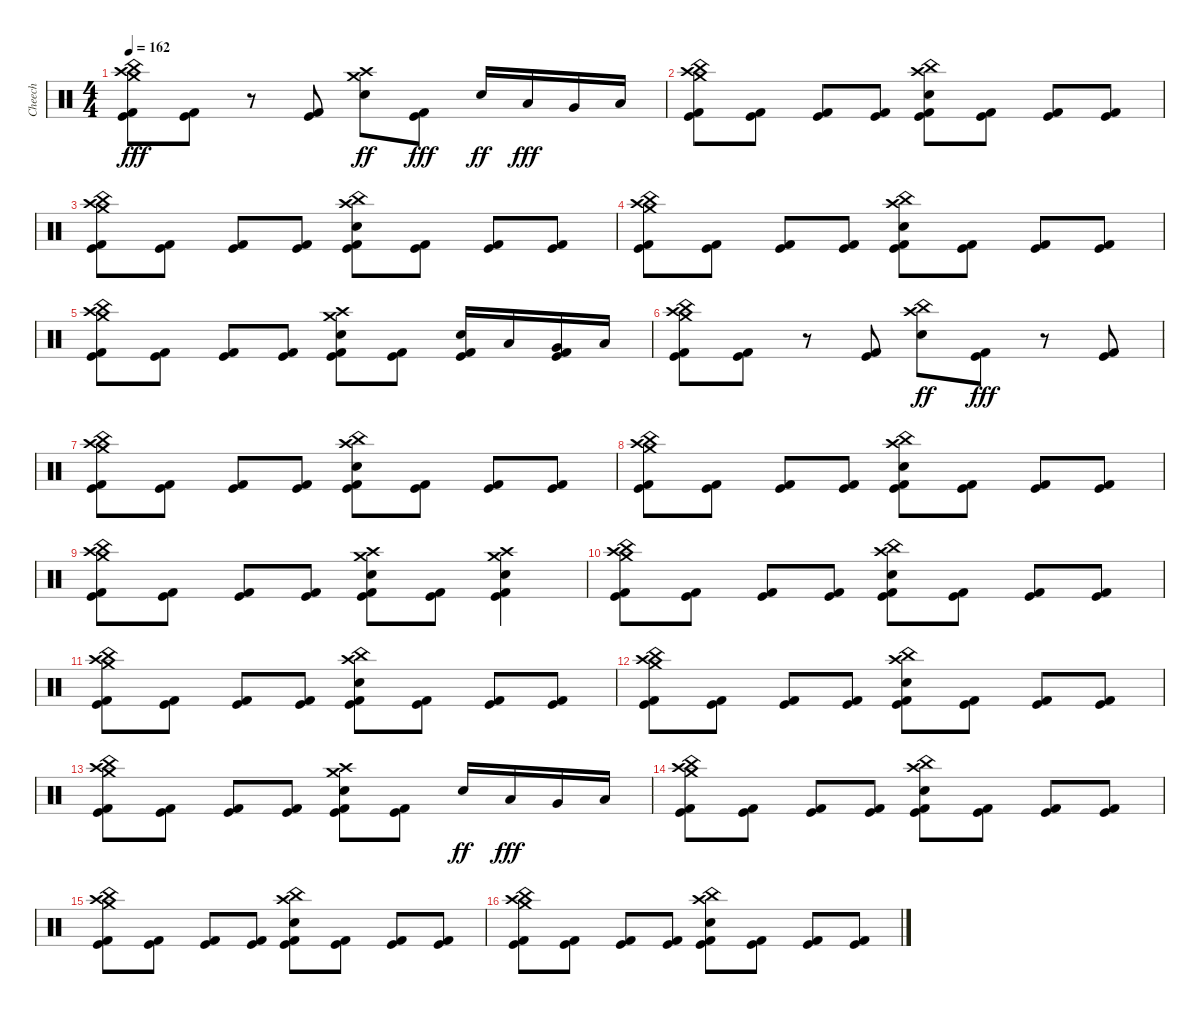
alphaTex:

\track ("Cheech" "Cheech") {instrument percussion}
\staff {score}
\articulation defaults
\ts (4 4)
\tempo 162
\clef neutral
\ks c
("China (hit)" "Crash high (hit)" "Crash medium (hit)" "Kick (hit) 2" "Kick (hit)").8{dy fff} ("Kick (hit) 2" "Kick (hit)").8 r.8 ("Kick (hit) 2" "Kick (hit)").8 ("Crash medium (hit)" "Crash high (hit)" "Electric Snare (hit)").8{dy ff} ("Kick (hit) 2" "Kick (hit)").8{dy fff} "Electric Snare (hit)".16{dy ff} "Low Tom (hit)".16{dy fff} "Very Low Tom (hit)".16 "Low Floor Tom (hit)".16 |
("China (hit)" "Crash high (hit)" "Crash medium (hit)" "Kick (hit) 2" "Kick (hit)").8 ("Kick (hit) 2" "Kick (hit)").8 ("Kick (hit) 2" "Kick (hit)").8 ("Kick (hit) 2" "Kick (hit)").8 ("China (hit)" "Crash high (hit)" "Electric Snare (hit)" "Kick (hit) 2" "Kick (hit)").8 ("Kick (hit) 2" "Kick (hit)").8 ("Kick (hit) 2" "Kick (hit)").8 ("Kick (hit) 2" "Kick (hit)").8 |
("China (hit)" "Crash high (hit)" "Crash medium (hit)" "Kick (hit) 2" "Kick (hit)").8 ("Kick (hit) 2" "Kick (hit)").8 ("Kick (hit) 2" "Kick (hit)").8 ("Kick (hit) 2" "Kick (hit)").8 ("China (hit)" "Crash high (hit)" "Electric Snare (hit)" "Kick (hit) 2" "Kick (hit)").8 ("Kick (hit) 2" "Kick (hit)").8 ("Kick (hit) 2" "Kick (hit)").8 ("Kick (hit) 2" "Kick (hit)").8 |
("China (hit)" "Crash high (hit)" "Crash medium (hit)" "Kick (hit) 2" "Kick (hit)").8 ("Kick (hit) 2" "Kick (hit)").8 ("Kick (hit) 2" "Kick (hit)").8 ("Kick (hit) 2" "Kick (hit)").8 ("China (hit)" "Crash high (hit)" "Electric Snare (hit)" "Kick (hit) 2" "Kick (hit)").8 ("Kick (hit) 2" "Kick (hit)").8 ("Kick (hit) 2" "Kick (hit)").8 ("Kick (hit) 2" "Kick (hit)").8 |
("China (hit)" "Crash high (hit)" "Crash medium (hit)" "Kick (hit) 2" "Kick (hit)").8 ("Kick (hit) 2" "Kick (hit)").8 ("Kick (hit) 2" "Kick (hit)").8 ("Kick (hit) 2" "Kick (hit)").8 ("Crash medium (hit)" "Crash high (hit)" "Electric Snare (hit)" "Kick (hit) 2" "Kick (hit)").8 ("Kick (hit) 2" "Kick (hit)").8 ("Electric Snare (hit)" "Kick (hit) 2" "Kick (hit)").16 "Low Tom (hit)".16 ("Very Low Tom (hit)" "Kick (hit) 2" "Kick (hit)").16 "Low Floor Tom (hit)".16 |
("China (hit)" "Crash high (hit)" "Crash medium (hit)" "Kick (hit) 2" "Kick (hit)").8 ("Kick (hit) 2" "Kick (hit)").8 r.8 ("Kick (hit) 2" "Kick (hit)").8 ("China (hit)" "Crash high (hit)" "Electric Snare (hit)").8{dy ff} ("Kick (hit) 2" "Kick (hit)").8{dy fff} r.8 ("Kick (hit) 2" "Kick (hit)").8 |
("China (hit)" "Crash high (hit)" "Crash medium (hit)" "Kick (hit) 2" "Kick (hit)").8 ("Kick (hit) 2" "Kick (hit)").8 ("Kick (hit) 2" "Kick (hit)").8 ("Kick (hit) 2" "Kick (hit)").8 ("China (hit)" "Crash high (hit)" "Electric Snare (hit)" "Kick (hit) 2" "Kick (hit)").8 ("Kick (hit) 2" "Kick (hit)").8 ("Kick (hit) 2" "Kick (hit)").8 ("Kick (hit) 2" "Kick (hit)").8 |
("China (hit)" "Crash high (hit)" "Crash medium (hit)" "Kick (hit) 2" "Kick (hit)").8 ("Kick (hit) 2" "Kick (hit)").8 ("Kick (hit) 2" "Kick (hit)").8 ("Kick (hit) 2" "Kick (hit)").8 ("China (hit)" "Crash high (hit)" "Electric Snare (hit)" "Kick (hit) 2" "Kick (hit)").8 ("Kick (hit) 2" "Kick (hit)").8 ("Kick (hit) 2" "Kick (hit)").8 ("Kick (hit) 2" "Kick (hit)").8 |
("China (hit)" "Crash high (hit)" "Crash medium (hit)" "Kick (hit) 2" "Kick (hit)").8 ("Kick (hit) 2" "Kick (hit)").8 ("Kick (hit) 2" "Kick (hit)").8 ("Kick (hit) 2" "Kick (hit)").8 ("Crash medium (hit)" "Crash high (hit)" "Electric Snare (hit)" "Kick (hit) 2" "Kick (hit)").8 ("Kick (hit) 2" "Kick (hit)").8 ("Crash medium (hit)" "Crash high (hit)" "Electric Snare (hit)" "Kick (hit) 2" "Kick (hit)").4 |
("China (hit)" "Crash high (hit)" "Crash medium (hit)" "Kick (hit) 2" "Kick (hit)").8 ("Kick (hit) 2" "Kick (hit)").8 ("Kick (hit) 2" "Kick (hit)").8 ("Kick (hit) 2" "Kick (hit)").8 ("China (hit)" "Crash high (hit)" "Electric Snare (hit)" "Kick (hit) 2" "Kick (hit)").8 ("Kick (hit) 2" "Kick (hit)").8 ("Kick (hit) 2" "Kick (hit)").8 ("Kick (hit) 2" "Kick (hit)").8 |
("China (hit)" "Crash high (hit)" "Crash medium (hit)" "Kick (hit) 2" "Kick (hit)").8 ("Kick (hit) 2" "Kick (hit)").8 ("Kick (hit) 2" "Kick (hit)").8 ("Kick (hit) 2" "Kick (hit)").8 ("China (hit)" "Crash high (hit)" "Electric Snare (hit)" "Kick (hit) 2" "Kick (hit)").8 ("Kick (hit) 2" "Kick (hit)").8 ("Kick (hit) 2" "Kick (hit)").8 ("Kick (hit) 2" "Kick (hit)").8 |
("China (hit)" "Crash high (hit)" "Crash medium (hit)" "Kick (hit) 2" "Kick (hit)").8 ("Kick (hit) 2" "Kick (hit)").8 ("Kick (hit) 2" "Kick (hit)").8 ("Kick (hit) 2" "Kick (hit)").8 ("China (hit)" "Crash high (hit)" "Electric Snare (hit)" "Kick (hit) 2" "Kick (hit)").8 ("Kick (hit) 2" "Kick (hit)").8 ("Kick (hit) 2" "Kick (hit)").8 ("Kick (hit) 2" "Kick (hit)").8 |
("China (hit)" "Crash high (hit)" "Crash medium (hit)" "Kick (hit) 2" "Kick (hit)").8 ("Kick (hit) 2" "Kick (hit)").8 ("Kick (hit) 2" "Kick (hit)").8 ("Kick (hit) 2" "Kick (hit)").8 ("Crash medium (hit)" "Crash high (hit)" "Electric Snare (hit)" "Kick (hit) 2" "Kick (hit)").8 ("Kick (hit) 2" "Kick (hit)").8 "Electric Snare (hit)".16{dy ff} "Low Tom (hit)".16{dy fff} "Very Low Tom (hit)".16 "Low Floor Tom (hit)".16 |
("China (hit)" "Crash high (hit)" "Crash medium (hit)" "Kick (hit) 2" "Kick (hit)").8 ("Kick (hit) 2" "Kick (hit)").8 ("Kick (hit) 2" "Kick (hit)").8 ("Kick (hit) 2" "Kick (hit)").8 ("China (hit)" "Crash high (hit)" "Electric Snare (hit)" "Kick (hit) 2" "Kick (hit)").8 ("Kick (hit) 2" "Kick (hit)").8 ("Kick (hit) 2" "Kick (hit)").8 ("Kick (hit) 2" "Kick (hit)").8 |
("China (hit)" "Crash high (hit)" "Crash medium (hit)" "Kick (hit) 2" "Kick (hit)").8 ("Kick (hit) 2" "Kick (hit)").8 ("Kick (hit) 2" "Kick (hit)").8 ("Kick (hit) 2" "Kick (hit)").8 ("China (hit)" "Crash high (hit)" "Electric Snare (hit)" "Kick (hit) 2" "Kick (hit)").8 ("Kick (hit) 2" "Kick (hit)").8 ("Kick (hit) 2" "Kick (hit)").8 ("Kick (hit) 2" "Kick (hit)").8 |
("China (hit)" "Crash high (hit)" "Crash medium (hit)" "Kick (hit) 2" "Kick (hit)").8 ("Kick (hit) 2" "Kick (hit)").8 ("Kick (hit) 2" "Kick (hit)").8 ("Kick (hit) 2" "Kick (hit)").8 ("China (hit)" "Crash high (hit)" "Electric Snare (hit)" "Kick (hit) 2" "Kick (hit)").8 ("Kick (hit) 2" "Kick (hit)").8 ("Kick (hit) 2" "Kick (hit)").8 ("Kick (hit) 2" "Kick (hit)").8
